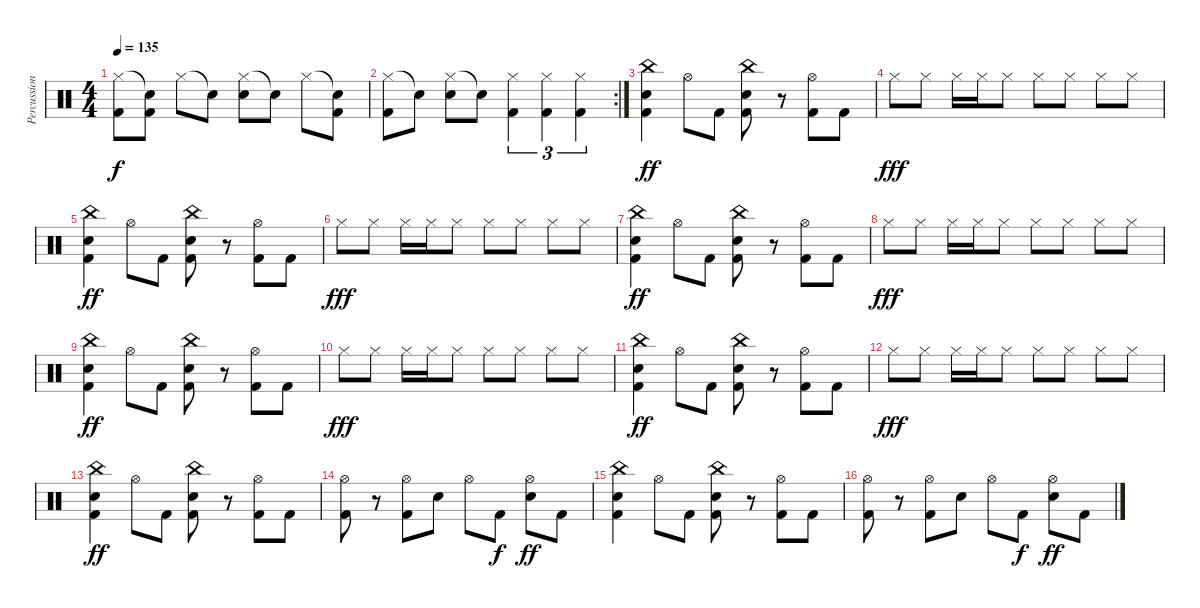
\track ("Percussion" "Percussion") {instrument percussion}
\staff {score}
\articulation defaults
\ts (4 4)
\tempo 135
\clef neutral
\ks c
("Hi-Hat (closed)" "Kick (hit) 2").8{dy f} ("Snare (hit)"{t} "Kick (hit) 2").8 "Hi-Hat (closed)".8 "Snare (hit)"{t}.8 ("Hi-Hat (closed)" "Electric Snare (hit)").8 "Snare (hit)"{t}.8 "Hi-Hat (closed)".8 ("Snare (hit)"{t} "Kick (hit) 2").8 |
\rc 2
("Hi-Hat (closed)" "Kick (hit) 2").8 "Snare (hit)"{t}.8 ("Hi-Hat (closed)" "Electric Snare (hit)").8 "Snare (hit)"{t}.8 ("Hi-Hat (closed)" "Kick (hit) 2").4{tu (3 2)} ("Hi-Hat (closed)" "Kick (hit) 2").4{tu (3 2)} ("Hi-Hat (closed)" "Kick (hit) 2").4{tu (3 2)} |
("China (hit)" "Snare (hit) 2" "Kick (hit) 2").4{dy ff} "Hi-Hat (open)".8 "Kick (hit) 2".8 ("China (hit)" "Snare (hit) 2" "Kick (hit) 2").8 r.8 ("Hi-Hat (open)" "Kick (hit) 2").8 "Kick (hit) 2".8 |
"Hi-Hat (closed)".8{dy fff} "Hi-Hat (closed)".8 "Hi-Hat (closed)".16 "Hi-Hat (closed)".16 "Hi-Hat (closed)".8 "Hi-Hat (closed)".8 "Hi-Hat (closed)".8 "Hi-Hat (closed)".8 "Hi-Hat (closed)".8 |
("China (hit)" "Snare (hit) 2" "Kick (hit) 2").4{dy ff} "Hi-Hat (open)".8 "Kick (hit) 2".8 ("China (hit)" "Snare (hit) 2" "Kick (hit) 2").8 r.8 ("Hi-Hat (open)" "Kick (hit) 2").8 "Kick (hit) 2".8 |
"Hi-Hat (closed)".8{dy fff} "Hi-Hat (closed)".8 "Hi-Hat (closed)".16 "Hi-Hat (closed)".16 "Hi-Hat (closed)".8 "Hi-Hat (closed)".8 "Hi-Hat (closed)".8 "Hi-Hat (closed)".8 "Hi-Hat (closed)".8 |
("China (hit)" "Snare (hit) 2" "Kick (hit) 2").4{dy ff} "Hi-Hat (open)".8 "Kick (hit) 2".8 ("China (hit)" "Snare (hit) 2" "Kick (hit) 2").8 r.8 ("Hi-Hat (open)" "Kick (hit) 2").8 "Kick (hit) 2".8 |
"Hi-Hat (closed)".8{dy fff} "Hi-Hat (closed)".8 "Hi-Hat (closed)".16 "Hi-Hat (closed)".16 "Hi-Hat (closed)".8 "Hi-Hat (closed)".8 "Hi-Hat (closed)".8 "Hi-Hat (closed)".8 "Hi-Hat (closed)".8 |
("China (hit)" "Snare (hit) 2" "Kick (hit) 2").4{dy ff} "Hi-Hat (open)".8 "Kick (hit) 2".8 ("China (hit)" "Snare (hit) 2" "Kick (hit) 2").8 r.8 ("Hi-Hat (open)" "Kick (hit) 2").8 "Kick (hit) 2".8 |
"Hi-Hat (closed)".8{dy fff} "Hi-Hat (closed)".8 "Hi-Hat (closed)".16 "Hi-Hat (closed)".16 "Hi-Hat (closed)".8 "Hi-Hat (closed)".8 "Hi-Hat (closed)".8 "Hi-Hat (closed)".8 "Hi-Hat (closed)".8 |
("China (hit)" "Snare (hit) 2" "Kick (hit) 2").4{dy ff} "Hi-Hat (open)".8 "Kick (hit) 2".8 ("China (hit)" "Snare (hit) 2" "Kick (hit) 2").8 r.8 ("Hi-Hat (open)" "Kick (hit) 2").8 "Kick (hit) 2".8 |
"Hi-Hat (closed)".8{dy fff} "Hi-Hat (closed)".8 "Hi-Hat (closed)".16 "Hi-Hat (closed)".16 "Hi-Hat (closed)".8 "Hi-Hat (closed)".8 "Hi-Hat (closed)".8 "Hi-Hat (closed)".8 "Hi-Hat (closed)".8 |
("China (hit)" "Snare (hit) 2" "Kick (hit) 2").4{dy ff} "Hi-Hat (open)".8 "Kick (hit) 2".8 ("China (hit)" "Snare (hit) 2" "Kick (hit) 2").8 r.8 ("Hi-Hat (open)" "Kick (hit) 2").8 "Kick (hit) 2".8 |
("Hi-Hat (open)" "Kick (hit) 2").8 r.8 ("Hi-Hat (open)" "Kick (hit) 2").8 "Electric Snare (hit)".8 "Hi-Hat (open)".8 "Kick (hit) 2".8{dy f} ("Hi-Hat (open)" "Electric Snare (hit)").8{dy ff} "Kick (hit) 2".8 |
("China (hit)" "Snare (hit) 2" "Kick (hit) 2").4 "Hi-Hat (open)".8 "Kick (hit) 2".8 ("China (hit)" "Snare (hit) 2" "Kick (hit) 2").8 r.8 ("Hi-Hat (open)" "Kick (hit) 2").8 "Kick (hit) 2".8 |
("Hi-Hat (open)" "Kick (hit) 2").8 r.8 ("Hi-Hat (open)" "Kick (hit) 2").8 "Electric Snare (hit)".8 "Hi-Hat (open)".8 "Kick (hit) 2".8{dy f} ("Hi-Hat (open)" "Electric Snare (hit)").8{dy ff} "Kick (hit) 2".8
